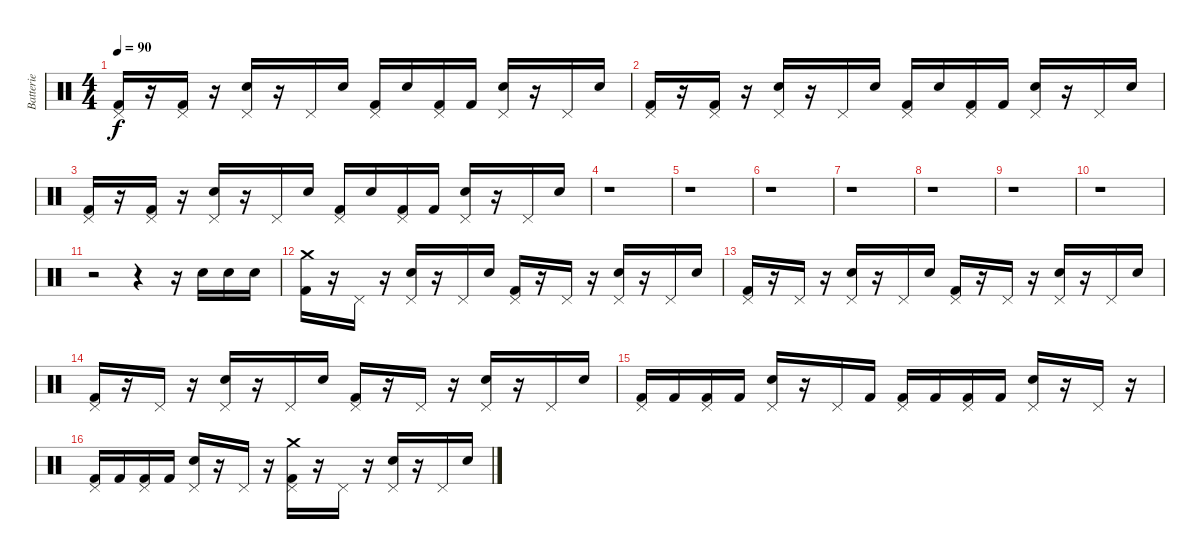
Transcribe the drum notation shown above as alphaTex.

\track ("Batterie" "Batterie") {instrument percussion}
\staff {score}
\articulation defaults
\ts (4 4)
\tempo 90
\clef neutral
\ks c
("Pedal Hi-Hat (hit)" "Kick (hit) 2").16{dy f} r.16 ("Pedal Hi-Hat (hit)" "Kick (hit) 2").16 r.16 ("Pedal Hi-Hat (hit)" "Electric Snare (hit)").16 r.16 "Pedal Hi-Hat (hit)".16 "Electric Snare (hit)".16 ("Pedal Hi-Hat (hit)" "Kick (hit) 2").16 "Electric Snare (hit)".16 ("Pedal Hi-Hat (hit)" "Kick (hit) 2").16 "Kick (hit) 2".16 ("Pedal Hi-Hat (hit)" "Electric Snare (hit)").16 r.16 "Pedal Hi-Hat (hit)".16 "Electric Snare (hit)".16 |
("Pedal Hi-Hat (hit)" "Kick (hit) 2").16 r.16 ("Pedal Hi-Hat (hit)" "Kick (hit) 2").16 r.16 ("Pedal Hi-Hat (hit)" "Electric Snare (hit)").16 r.16 "Pedal Hi-Hat (hit)".16 "Electric Snare (hit)".16 ("Pedal Hi-Hat (hit)" "Kick (hit) 2").16 "Electric Snare (hit)".16 ("Pedal Hi-Hat (hit)" "Kick (hit) 2").16 "Kick (hit) 2".16 ("Pedal Hi-Hat (hit)" "Electric Snare (hit)").16 r.16 "Pedal Hi-Hat (hit)".16 "Electric Snare (hit)".16 |
("Pedal Hi-Hat (hit)" "Kick (hit) 2").16 r.16 ("Pedal Hi-Hat (hit)" "Kick (hit) 2").16 r.16 ("Pedal Hi-Hat (hit)" "Electric Snare (hit)").16 r.16 "Pedal Hi-Hat (hit)".16 "Electric Snare (hit)".16 ("Pedal Hi-Hat (hit)" "Kick (hit) 2").16 "Electric Snare (hit)".16 ("Pedal Hi-Hat (hit)" "Kick (hit) 2").16 "Kick (hit) 2".16 ("Pedal Hi-Hat (hit)" "Electric Snare (hit)").16 r.16 "Pedal Hi-Hat (hit)".16 "Electric Snare (hit)".16 |
r.1 |
r.1 |
r.1 |
r.1 |
r.1 |
r.1 |
r.1 |
r.2 r.4 r.16 "Electric Snare (hit)".16 "Electric Snare (hit)".16 "Electric Snare (hit)".16 |
("Crash medium (hit)" "Kick (hit) 2").16 r.16 "Pedal Hi-Hat (hit)".16 r.16 ("Pedal Hi-Hat (hit)" "Electric Snare (hit)").16 r.16 "Pedal Hi-Hat (hit)".16 "Electric Snare (hit)".16 ("Pedal Hi-Hat (hit)" "Kick (hit) 2").16 r.16 "Pedal Hi-Hat (hit)".16 r.16 ("Pedal Hi-Hat (hit)" "Electric Snare (hit)").16 r.16 "Pedal Hi-Hat (hit)".16 "Electric Snare (hit)".16 |
("Pedal Hi-Hat (hit)" "Kick (hit) 2").16 r.16 "Pedal Hi-Hat (hit)".16 r.16 ("Pedal Hi-Hat (hit)" "Electric Snare (hit)").16 r.16 "Pedal Hi-Hat (hit)".16 "Electric Snare (hit)".16 ("Pedal Hi-Hat (hit)" "Kick (hit) 2").16 r.16 "Pedal Hi-Hat (hit)".16 r.16 ("Pedal Hi-Hat (hit)" "Electric Snare (hit)").16 r.16 "Pedal Hi-Hat (hit)".16 "Electric Snare (hit)".16 |
("Pedal Hi-Hat (hit)" "Kick (hit) 2").16 r.16 "Pedal Hi-Hat (hit)".16 r.16 ("Pedal Hi-Hat (hit)" "Electric Snare (hit)").16 r.16 "Pedal Hi-Hat (hit)".16 "Electric Snare (hit)".16 ("Pedal Hi-Hat (hit)" "Kick (hit) 2").16 r.16 "Pedal Hi-Hat (hit)".16 r.16 ("Pedal Hi-Hat (hit)" "Electric Snare (hit)").16 r.16 "Pedal Hi-Hat (hit)".16 "Electric Snare (hit)".16 |
("Pedal Hi-Hat (hit)" "Kick (hit) 2").16 "Kick (hit) 2".16 ("Pedal Hi-Hat (hit)" "Kick (hit) 2").16 "Kick (hit) 2".16 ("Pedal Hi-Hat (hit)" "Electric Snare (hit)").16 r.16 "Pedal Hi-Hat (hit)".16 "Kick (hit) 2".16 ("Pedal Hi-Hat (hit)" "Kick (hit) 2").16 "Kick (hit) 2".16 ("Pedal Hi-Hat (hit)" "Kick (hit) 2").16 "Kick (hit) 2".16 ("Pedal Hi-Hat (hit)" "Electric Snare (hit)").16 r.16 "Pedal Hi-Hat (hit)".16 r.16 |
("Pedal Hi-Hat (hit)" "Kick (hit) 2").16 "Kick (hit) 2".16 ("Pedal Hi-Hat (hit)" "Kick (hit) 2").16 "Kick (hit) 2".16 ("Pedal Hi-Hat (hit)" "Electric Snare (hit)").16 r.16 "Pedal Hi-Hat (hit)".16 r.16 ("Pedal Hi-Hat (hit)" "Crash medium (hit)" "Kick (hit) 2").16 r.16 "Pedal Hi-Hat (hit)".16 r.16 ("Pedal Hi-Hat (hit)" "Electric Snare (hit)").16 r.16 "Pedal Hi-Hat (hit)".16 "Electric Snare (hit)".16
